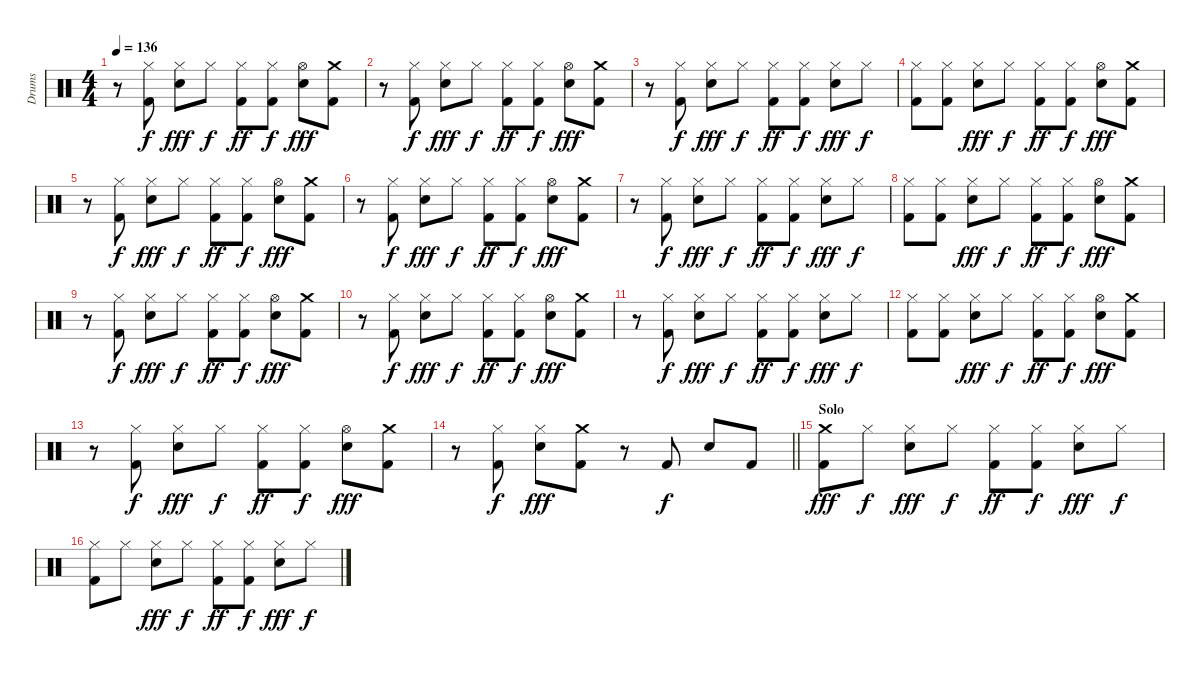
\track ("Drums" "Drums") {instrument percussion}
\staff {score}
\articulation defaults
\ts (4 4)
\tempo 136
\clef neutral
\ks c
r.8{dy fff} ("Hi-Hat (closed)" "Kick (hit) 2").8{dy f} ("Hi-Hat (closed)" "Snare (hit) 2").8{dy fff} "Hi-Hat (closed)".8{dy f} ("Hi-Hat (closed)" "Kick (hit) 2").8{dy ff} ("Hi-Hat (closed)" "Kick (hit) 2").8{dy f} ("Hi-Hat (open)" "Snare (hit) 2").8{dy fff} ("Crash medium (hit)" "Kick (hit) 2").8 |
r.8 ("Hi-Hat (closed)" "Kick (hit) 2").8{dy f} ("Hi-Hat (closed)" "Snare (hit) 2").8{dy fff} "Hi-Hat (closed)".8{dy f} ("Hi-Hat (closed)" "Kick (hit) 2").8{dy ff} ("Hi-Hat (closed)" "Kick (hit) 2").8{dy f} ("Hi-Hat (open)" "Snare (hit) 2").8{dy fff} ("Crash medium (hit)" "Kick (hit) 2").8 |
r.8 ("Hi-Hat (closed)" "Kick (hit) 2").8{dy f} ("Hi-Hat (closed)" "Snare (hit) 2").8{dy fff} "Hi-Hat (closed)".8{dy f} ("Hi-Hat (closed)" "Kick (hit) 2").8{dy ff} ("Hi-Hat (closed)" "Kick (hit) 2").8{dy f} ("Hi-Hat (closed)" "Snare (hit) 2").8{dy fff} "Hi-Hat (closed)".8{dy f} |
("Hi-Hat (closed)" "Kick (hit) 2").8 ("Hi-Hat (closed)" "Kick (hit) 2").8 ("Hi-Hat (closed)" "Snare (hit) 2").8{dy fff} "Hi-Hat (closed)".8{dy f} ("Hi-Hat (closed)" "Kick (hit) 2").8{dy ff} ("Hi-Hat (closed)" "Kick (hit) 2").8{dy f} ("Hi-Hat (open)" "Snare (hit) 2").8{dy fff} ("Crash medium (hit)" "Kick (hit) 2").8 |
r.8 ("Hi-Hat (closed)" "Kick (hit) 2").8{dy f} ("Hi-Hat (closed)" "Snare (hit) 2").8{dy fff} "Hi-Hat (closed)".8{dy f} ("Hi-Hat (closed)" "Kick (hit) 2").8{dy ff} ("Hi-Hat (closed)" "Kick (hit) 2").8{dy f} ("Hi-Hat (open)" "Snare (hit) 2").8{dy fff} ("Crash medium (hit)" "Kick (hit) 2").8 |
r.8 ("Hi-Hat (closed)" "Kick (hit) 2").8{dy f} ("Hi-Hat (closed)" "Snare (hit) 2").8{dy fff} "Hi-Hat (closed)".8{dy f} ("Hi-Hat (closed)" "Kick (hit) 2").8{dy ff} ("Hi-Hat (closed)" "Kick (hit) 2").8{dy f} ("Hi-Hat (open)" "Snare (hit) 2").8{dy fff} ("Crash medium (hit)" "Kick (hit) 2").8 |
r.8 ("Hi-Hat (closed)" "Kick (hit) 2").8{dy f} ("Hi-Hat (closed)" "Snare (hit) 2").8{dy fff} "Hi-Hat (closed)".8{dy f} ("Hi-Hat (closed)" "Kick (hit) 2").8{dy ff} ("Hi-Hat (closed)" "Kick (hit) 2").8{dy f} ("Hi-Hat (closed)" "Snare (hit) 2").8{dy fff} "Hi-Hat (closed)".8{dy f} |
("Hi-Hat (closed)" "Kick (hit) 2").8 ("Hi-Hat (closed)" "Kick (hit) 2").8 ("Hi-Hat (closed)" "Snare (hit) 2").8{dy fff} "Hi-Hat (closed)".8{dy f} ("Hi-Hat (closed)" "Kick (hit) 2").8{dy ff} ("Hi-Hat (closed)" "Kick (hit) 2").8{dy f} ("Hi-Hat (open)" "Snare (hit) 2").8{dy fff} ("Crash medium (hit)" "Kick (hit) 2").8 |
r.8 ("Hi-Hat (closed)" "Kick (hit) 2").8{dy f} ("Hi-Hat (closed)" "Snare (hit) 2").8{dy fff} "Hi-Hat (closed)".8{dy f} ("Hi-Hat (closed)" "Kick (hit) 2").8{dy ff} ("Hi-Hat (closed)" "Kick (hit) 2").8{dy f} ("Hi-Hat (open)" "Snare (hit) 2").8{dy fff} ("Crash medium (hit)" "Kick (hit) 2").8 |
r.8 ("Hi-Hat (closed)" "Kick (hit) 2").8{dy f} ("Hi-Hat (closed)" "Snare (hit) 2").8{dy fff} "Hi-Hat (closed)".8{dy f} ("Hi-Hat (closed)" "Kick (hit) 2").8{dy ff} ("Hi-Hat (closed)" "Kick (hit) 2").8{dy f} ("Hi-Hat (open)" "Snare (hit) 2").8{dy fff} ("Crash medium (hit)" "Kick (hit) 2").8 |
r.8 ("Hi-Hat (closed)" "Kick (hit) 2").8{dy f} ("Hi-Hat (closed)" "Snare (hit) 2").8{dy fff} "Hi-Hat (closed)".8{dy f} ("Hi-Hat (closed)" "Kick (hit) 2").8{dy ff} ("Hi-Hat (closed)" "Kick (hit) 2").8{dy f} ("Hi-Hat (closed)" "Snare (hit) 2").8{dy fff} "Hi-Hat (closed)".8{dy f} |
("Hi-Hat (closed)" "Kick (hit) 2").8 ("Hi-Hat (closed)" "Kick (hit) 2").8 ("Hi-Hat (closed)" "Snare (hit) 2").8{dy fff} "Hi-Hat (closed)".8{dy f} ("Hi-Hat (closed)" "Kick (hit) 2").8{dy ff} ("Hi-Hat (closed)" "Kick (hit) 2").8{dy f} ("Hi-Hat (open)" "Snare (hit) 2").8{dy fff} ("Crash medium (hit)" "Kick (hit) 2").8 |
r.8 ("Hi-Hat (closed)" "Kick (hit) 2").8{dy f} ("Hi-Hat (closed)" "Snare (hit) 2").8{dy fff} "Hi-Hat (closed)".8{dy f} ("Hi-Hat (closed)" "Kick (hit) 2").8{dy ff} ("Hi-Hat (closed)" "Kick (hit) 2").8{dy f} ("Hi-Hat (open)" "Snare (hit) 2").8{dy fff} ("Crash medium (hit)" "Kick (hit) 2").8 |
\barLineRight lightlight
r.8 ("Hi-Hat (closed)" "Kick (hit) 2").8{dy f} ("Hi-Hat (closed)" "Snare (hit) 2").8{dy fff} ("Crash medium (hit)" "Kick (hit) 2").8 r.8 "Kick (hit) 2".8{dy f} "Snare (hit) 2".8 "Kick (hit) 2".8 |
\section ("" "Solo")
("Crash medium (hit)" "Kick (hit) 2").8{dy fff} "Hi-Hat (closed)".8{dy f} ("Hi-Hat (closed)" "Snare (hit) 2").8{dy fff} "Hi-Hat (closed)".8{dy f} ("Hi-Hat (closed)" "Kick (hit) 2").8{dy ff} ("Hi-Hat (closed)" "Kick (hit) 2").8{dy f} ("Hi-Hat (closed)" "Snare (hit) 2").8{dy fff} "Hi-Hat (closed)".8{dy f} |
("Hi-Hat (closed)" "Kick (hit) 2").8 "Hi-Hat (closed)".8 ("Hi-Hat (closed)" "Snare (hit) 2").8{dy fff} "Hi-Hat (closed)".8{dy f} ("Hi-Hat (closed)" "Kick (hit) 2").8{dy ff} ("Hi-Hat (closed)" "Kick (hit) 2").8{dy f} ("Hi-Hat (closed)" "Snare (hit) 2").8{dy fff} "Hi-Hat (closed)".8{dy f}
